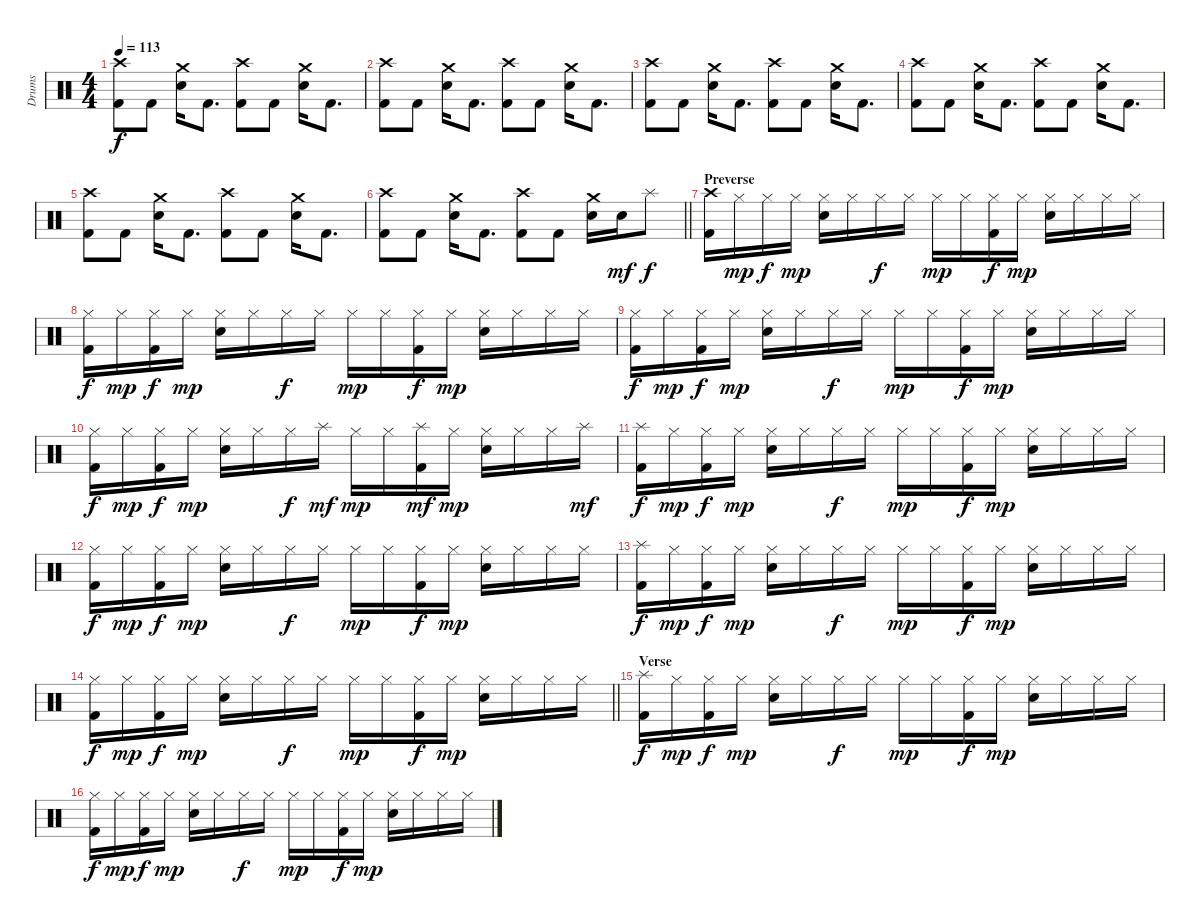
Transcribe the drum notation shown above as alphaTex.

\track ("Drums" "Drums") {instrument percussion}
\staff {score}
\articulation defaults
\ts (4 4)
\tempo 113
\clef neutral
\ks c
("Kick (hit) 2" "Crash high (hit)").8{dy f} "Kick (hit) 2".8 ("Crash medium (hit)" "Electric Snare (hit)").16 "Kick (hit) 2".8{d} ("Kick (hit) 2" "Crash high (hit)").8 "Kick (hit) 2".8 ("Crash medium (hit)" "Electric Snare (hit)").16 "Kick (hit) 2".8{d} |
("Kick (hit) 2" "Crash high (hit)").8 "Kick (hit) 2".8 ("Crash medium (hit)" "Electric Snare (hit)").16 "Kick (hit) 2".8{d} ("Kick (hit) 2" "Crash high (hit)").8 "Kick (hit) 2".8 ("Crash medium (hit)" "Electric Snare (hit)").16 "Kick (hit) 2".8{d} |
("Kick (hit) 2" "Crash high (hit)").8 "Kick (hit) 2".8 ("Crash medium (hit)" "Electric Snare (hit)").16 "Kick (hit) 2".8{d} ("Kick (hit) 2" "Crash high (hit)").8 "Kick (hit) 2".8 ("Crash medium (hit)" "Electric Snare (hit)").16 "Kick (hit) 2".8{d} |
("Kick (hit) 2" "Crash high (hit)").8 "Kick (hit) 2".8 ("Crash medium (hit)" "Electric Snare (hit)").16 "Kick (hit) 2".8{d} ("Kick (hit) 2" "Crash high (hit)").8 "Kick (hit) 2".8 ("Crash medium (hit)" "Electric Snare (hit)").16 "Kick (hit) 2".8{d} |
("Kick (hit) 2" "Crash high (hit)").8 "Kick (hit) 2".8 ("Crash medium (hit)" "Electric Snare (hit)").16 "Kick (hit) 2".8{d} ("Kick (hit) 2" "Crash high (hit)").8 "Kick (hit) 2".8 ("Crash medium (hit)" "Electric Snare (hit)").16 "Kick (hit) 2".8{d} |
\barLineRight lightlight
("Kick (hit) 2" "Crash high (hit)").8 "Kick (hit) 2".8 ("Crash medium (hit)" "Electric Snare (hit)").16 "Kick (hit) 2".8{d} ("Kick (hit) 2" "Crash high (hit)").8 "Kick (hit) 2".8 ("Crash medium (hit)" "Electric Snare (hit)").16 "Electric Snare (hit)".16{dy mf} "Splash (hit)".8{dy f} |
\section ("" "Preverse")
("Kick (hit) 2" "Crash high (hit)").16 "Hi-Hat (closed)".16{dy mp} "Hi-Hat (closed)".16{dy f} "Hi-Hat (closed)".16{dy mp} ("Hi-Hat (closed)" "Electric Snare (hit)").16 "Hi-Hat (closed)".16 "Hi-Hat (closed)".16{dy f} "Hi-Hat (closed)".16 "Hi-Hat (closed)".16{dy mp} "Hi-Hat (closed)".16 ("Kick (hit) 2" "Hi-Hat (closed)").16{dy f} "Hi-Hat (closed)".16{dy mp} ("Hi-Hat (closed)" "Electric Snare (hit)").16 "Hi-Hat (closed)".16 "Hi-Hat (closed)".16 "Hi-Hat (closed)".16 |
("Kick (hit) 2" "Hi-Hat (closed)").16{dy f} "Hi-Hat (closed)".16{dy mp} ("Kick (hit) 2" "Hi-Hat (closed)").16{dy f} "Hi-Hat (closed)".16{dy mp} ("Hi-Hat (closed)" "Electric Snare (hit)").16 "Hi-Hat (closed)".16 "Hi-Hat (closed)".16{dy f} "Hi-Hat (closed)".16 "Hi-Hat (closed)".16{dy mp} "Hi-Hat (closed)".16 ("Kick (hit) 2" "Hi-Hat (closed)").16{dy f} "Hi-Hat (closed)".16{dy mp} ("Hi-Hat (closed)" "Electric Snare (hit)").16 "Hi-Hat (closed)".16 "Hi-Hat (closed)".16 "Hi-Hat (closed)".16 |
("Kick (hit) 2" "Hi-Hat (closed)").16{dy f} "Hi-Hat (closed)".16{dy mp} ("Kick (hit) 2" "Hi-Hat (closed)").16{dy f} "Hi-Hat (closed)".16{dy mp} ("Hi-Hat (closed)" "Electric Snare (hit)").16 "Hi-Hat (closed)".16 "Hi-Hat (closed)".16{dy f} "Hi-Hat (closed)".16 "Hi-Hat (closed)".16{dy mp} "Hi-Hat (closed)".16 ("Kick (hit) 2" "Hi-Hat (closed)").16{dy f} "Hi-Hat (closed)".16{dy mp} ("Hi-Hat (closed)" "Electric Snare (hit)").16 "Hi-Hat (closed)".16 "Hi-Hat (closed)".16 "Hi-Hat (closed)".16 |
("Kick (hit) 2" "Hi-Hat (closed)").16{dy f} "Hi-Hat (closed)".16{dy mp} ("Kick (hit) 2" "Hi-Hat (closed)").16{dy f} "Hi-Hat (closed)".16{dy mp} ("Hi-Hat (closed)" "Electric Snare (hit)").16 "Hi-Hat (closed)".16 "Hi-Hat (closed)".16{dy f} "Splash (hit)".16{dy mf} "Hi-Hat (closed)".16{dy mp} "Hi-Hat (closed)".16 ("Kick (hit) 2" "Splash (hit)").16{dy mf} "Hi-Hat (closed)".16{dy mp} ("Hi-Hat (closed)" "Electric Snare (hit)").16 "Hi-Hat (closed)".16 "Hi-Hat (closed)".16 "Splash (hit)".16{dy mf} |
("Kick (hit) 2" "Splash (hit)").16{dy f} "Hi-Hat (closed)".16{dy mp} ("Kick (hit) 2" "Hi-Hat (closed)").16{dy f} "Hi-Hat (closed)".16{dy mp} ("Hi-Hat (closed)" "Electric Snare (hit)").16 "Hi-Hat (closed)".16 "Hi-Hat (closed)".16{dy f} "Hi-Hat (closed)".16 "Hi-Hat (closed)".16{dy mp} "Hi-Hat (closed)".16 ("Kick (hit) 2" "Hi-Hat (closed)").16{dy f} "Hi-Hat (closed)".16{dy mp} ("Hi-Hat (closed)" "Electric Snare (hit)").16 "Hi-Hat (closed)".16 "Hi-Hat (closed)".16 "Hi-Hat (closed)".16 |
("Kick (hit) 2" "Hi-Hat (closed)").16{dy f} "Hi-Hat (closed)".16{dy mp} ("Kick (hit) 2" "Hi-Hat (closed)").16{dy f} "Hi-Hat (closed)".16{dy mp} ("Hi-Hat (closed)" "Electric Snare (hit)").16 "Hi-Hat (closed)".16 "Hi-Hat (closed)".16{dy f} "Hi-Hat (closed)".16 "Hi-Hat (closed)".16{dy mp} "Hi-Hat (closed)".16 ("Kick (hit) 2" "Hi-Hat (closed)").16{dy f} "Hi-Hat (closed)".16{dy mp} ("Hi-Hat (closed)" "Electric Snare (hit)").16 "Hi-Hat (closed)".16 "Hi-Hat (closed)".16 "Hi-Hat (closed)".16 |
("Kick (hit) 2" "Splash (hit)").16{dy f} "Hi-Hat (closed)".16{dy mp} ("Kick (hit) 2" "Hi-Hat (closed)").16{dy f} "Hi-Hat (closed)".16{dy mp} ("Hi-Hat (closed)" "Electric Snare (hit)").16 "Hi-Hat (closed)".16 "Hi-Hat (closed)".16{dy f} "Hi-Hat (closed)".16 "Hi-Hat (closed)".16{dy mp} "Hi-Hat (closed)".16 ("Kick (hit) 2" "Hi-Hat (closed)").16{dy f} "Hi-Hat (closed)".16{dy mp} ("Hi-Hat (closed)" "Electric Snare (hit)").16 "Hi-Hat (closed)".16 "Hi-Hat (closed)".16 "Hi-Hat (closed)".16 |
\barLineRight lightlight
("Kick (hit) 2" "Hi-Hat (closed)").16{dy f} "Hi-Hat (closed)".16{dy mp} ("Kick (hit) 2" "Hi-Hat (closed)").16{dy f} "Hi-Hat (closed)".16{dy mp} ("Hi-Hat (closed)" "Electric Snare (hit)").16 "Hi-Hat (closed)".16 "Hi-Hat (closed)".16{dy f} "Hi-Hat (closed)".16 "Hi-Hat (closed)".16{dy mp} "Hi-Hat (closed)".16 ("Kick (hit) 2" "Hi-Hat (closed)").16{dy f} "Hi-Hat (closed)".16{dy mp} ("Hi-Hat (closed)" "Electric Snare (hit)").16 "Hi-Hat (closed)".16 "Hi-Hat (closed)".16 "Hi-Hat (closed)".16 |
\section ("" "Verse")
("Kick (hit) 2" "Splash (hit)").16{dy f} "Hi-Hat (closed)".16{dy mp} ("Kick (hit) 2" "Hi-Hat (closed)").16{dy f} "Hi-Hat (closed)".16{dy mp} ("Hi-Hat (closed)" "Electric Snare (hit)").16 "Hi-Hat (closed)".16 "Hi-Hat (closed)".16{dy f} "Hi-Hat (closed)".16 "Hi-Hat (closed)".16{dy mp} "Hi-Hat (closed)".16 ("Kick (hit) 2" "Hi-Hat (closed)").16{dy f} "Hi-Hat (closed)".16{dy mp} ("Hi-Hat (closed)" "Electric Snare (hit)").16 "Hi-Hat (closed)".16 "Hi-Hat (closed)".16 "Hi-Hat (closed)".16 |
("Kick (hit) 2" "Hi-Hat (closed)").16{dy f} "Hi-Hat (closed)".16{dy mp} ("Kick (hit) 2" "Hi-Hat (closed)").16{dy f} "Hi-Hat (closed)".16{dy mp} ("Hi-Hat (closed)" "Electric Snare (hit)").16 "Hi-Hat (closed)".16 "Hi-Hat (closed)".16{dy f} "Hi-Hat (closed)".16 "Hi-Hat (closed)".16{dy mp} "Hi-Hat (closed)".16 ("Kick (hit) 2" "Hi-Hat (closed)").16{dy f} "Hi-Hat (closed)".16{dy mp} ("Hi-Hat (closed)" "Electric Snare (hit)").16 "Hi-Hat (closed)".16 "Hi-Hat (closed)".16 "Hi-Hat (closed)".16
